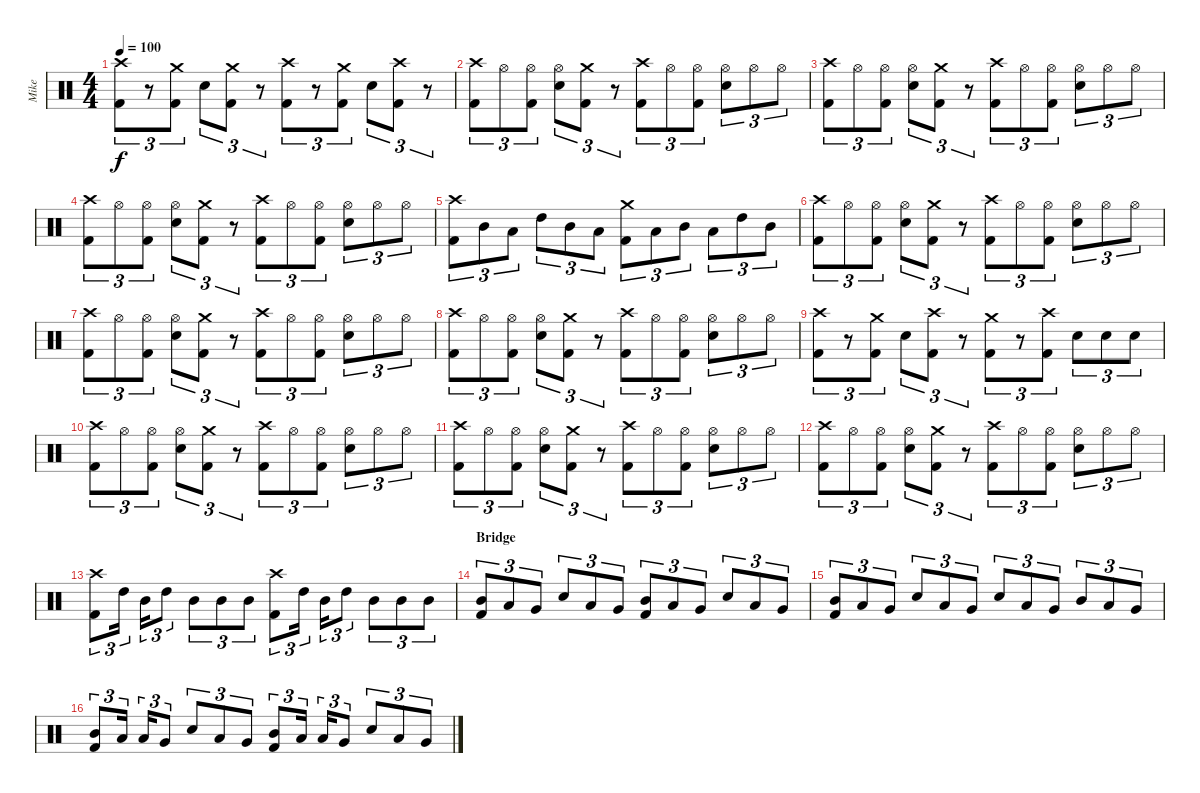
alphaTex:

\track ("Mike" "Mike") {instrument percussion}
\staff {score}
\articulation defaults
\ts (4 4)
\tempo 100
\clef neutral
\ks c
("Crash high (hit)" "Kick (hit) 2").8{tu (3 2) dy f} r.8{tu (3 2)} ("Crash medium (hit)" "Kick (hit) 2").8{tu (3 2)} "Electric Snare (hit)".8{tu (3 2)} ("Crash medium (hit)" "Kick (hit) 2").8{tu (3 2)} r.8{tu (3 2)} ("Crash high (hit)" "Kick (hit) 2").8{tu (3 2)} r.8{tu (3 2)} ("Crash medium (hit)" "Kick (hit) 2").8{tu (3 2)} "Electric Snare (hit)".8{tu (3 2)} ("Crash high (hit)" "Kick (hit) 2").8{tu (3 2)} r.8{tu (3 2)} |
("Crash high (hit)" "Kick (hit) 2").8{tu (3 2)} "Hi-Hat (open)".8{tu (3 2)} ("Hi-Hat (open)" "Kick (hit) 2").8{tu (3 2)} ("Hi-Hat (open)" "Electric Snare (hit)").8{tu (3 2)} ("Crash medium (hit)" "Kick (hit) 2").8{tu (3 2)} r.8{tu (3 2)} ("Crash high (hit)" "Kick (hit) 2").8{tu (3 2)} "Hi-Hat (open)".8{tu (3 2)} ("Hi-Hat (open)" "Kick (hit) 2").8{tu (3 2)} ("Hi-Hat (open)" "Electric Snare (hit)").8{tu (3 2)} "Hi-Hat (open)".8{tu (3 2)} "Hi-Hat (open)".8{tu (3 2)} |
("Crash high (hit)" "Kick (hit) 2").8{tu (3 2)} "Hi-Hat (open)".8{tu (3 2)} ("Hi-Hat (open)" "Kick (hit) 2").8{tu (3 2)} ("Hi-Hat (open)" "Electric Snare (hit)").8{tu (3 2)} ("Crash medium (hit)" "Kick (hit) 2").8{tu (3 2)} r.8{tu (3 2)} ("Crash high (hit)" "Kick (hit) 2").8{tu (3 2)} "Hi-Hat (open)".8{tu (3 2)} ("Hi-Hat (open)" "Kick (hit) 2").8{tu (3 2)} ("Hi-Hat (open)" "Electric Snare (hit)").8{tu (3 2)} "Hi-Hat (open)".8{tu (3 2)} "Hi-Hat (open)".8{tu (3 2)} |
("Crash high (hit)" "Kick (hit) 2").8{tu (3 2)} "Hi-Hat (open)".8{tu (3 2)} ("Hi-Hat (open)" "Kick (hit) 2").8{tu (3 2)} ("Hi-Hat (open)" "Electric Snare (hit)").8{tu (3 2)} ("Crash medium (hit)" "Kick (hit) 2").8{tu (3 2)} r.8{tu (3 2)} ("Crash high (hit)" "Kick (hit) 2").8{tu (3 2)} "Hi-Hat (open)".8{tu (3 2)} ("Hi-Hat (open)" "Kick (hit) 2").8{tu (3 2)} ("Hi-Hat (open)" "Electric Snare (hit)").8{tu (3 2)} "Hi-Hat (open)".8{tu (3 2)} "Hi-Hat (open)".8{tu (3 2)} |
("Crash high (hit)" "Kick (hit) 2").8{tu (3 2)} "Mid Tom (hit)".8{tu (3 2)} "Low Tom (hit)".8{tu (3 2)} "High Tom (hit)".8{tu (3 2)} "Mid Tom (hit)".8{tu (3 2)} "Low Tom (hit)".8{tu (3 2)} ("Crash medium (hit)" "Kick (hit) 2").8{tu (3 2)} "Low Tom (hit)".8{tu (3 2)} "Mid Tom (hit)".8{tu (3 2)} "Low Tom (hit)".8{tu (3 2)} "High Tom (hit)".8{tu (3 2)} "Mid Tom (hit)".8{tu (3 2)} |
("Crash high (hit)" "Kick (hit) 2").8{tu (3 2)} "Hi-Hat (open)".8{tu (3 2)} ("Hi-Hat (open)" "Kick (hit) 2").8{tu (3 2)} ("Hi-Hat (open)" "Electric Snare (hit)").8{tu (3 2)} ("Crash medium (hit)" "Kick (hit) 2").8{tu (3 2)} r.8{tu (3 2)} ("Crash high (hit)" "Kick (hit) 2").8{tu (3 2)} "Hi-Hat (open)".8{tu (3 2)} ("Hi-Hat (open)" "Kick (hit) 2").8{tu (3 2)} ("Hi-Hat (open)" "Electric Snare (hit)").8{tu (3 2)} "Hi-Hat (open)".8{tu (3 2)} "Hi-Hat (open)".8{tu (3 2)} |
("Crash high (hit)" "Kick (hit) 2").8{tu (3 2)} "Hi-Hat (open)".8{tu (3 2)} ("Hi-Hat (open)" "Kick (hit) 2").8{tu (3 2)} ("Hi-Hat (open)" "Electric Snare (hit)").8{tu (3 2)} ("Crash medium (hit)" "Kick (hit) 2").8{tu (3 2)} r.8{tu (3 2)} ("Crash high (hit)" "Kick (hit) 2").8{tu (3 2)} "Hi-Hat (open)".8{tu (3 2)} ("Hi-Hat (open)" "Kick (hit) 2").8{tu (3 2)} ("Hi-Hat (open)" "Electric Snare (hit)").8{tu (3 2)} "Hi-Hat (open)".8{tu (3 2)} "Hi-Hat (open)".8{tu (3 2)} |
("Crash high (hit)" "Kick (hit) 2").8{tu (3 2)} "Hi-Hat (open)".8{tu (3 2)} ("Hi-Hat (open)" "Kick (hit) 2").8{tu (3 2)} ("Hi-Hat (open)" "Electric Snare (hit)").8{tu (3 2)} ("Crash medium (hit)" "Kick (hit) 2").8{tu (3 2)} r.8{tu (3 2)} ("Crash high (hit)" "Kick (hit) 2").8{tu (3 2)} "Hi-Hat (open)".8{tu (3 2)} ("Hi-Hat (open)" "Kick (hit) 2").8{tu (3 2)} ("Hi-Hat (open)" "Electric Snare (hit)").8{tu (3 2)} "Hi-Hat (open)".8{tu (3 2)} "Hi-Hat (open)".8{tu (3 2)} |
("Crash high (hit)" "Kick (hit) 2").8{tu (3 2)} r.8{tu (3 2)} ("Crash medium (hit)" "Kick (hit) 2").8{tu (3 2)} "Electric Snare (hit)".8{tu (3 2)} ("Crash high (hit)" "Kick (hit) 2").8{tu (3 2)} r.8{tu (3 2)} ("Crash medium (hit)" "Kick (hit) 2").8{tu (3 2)} r.8{tu (3 2)} ("Crash high (hit)" "Kick (hit) 2").8{tu (3 2)} "Electric Snare (hit)".8{tu (3 2)} "Electric Snare (hit)".8{tu (3 2)} "Electric Snare (hit)".8{tu (3 2)} |
("Crash high (hit)" "Kick (hit) 2").8{tu (3 2)} "Hi-Hat (open)".8{tu (3 2)} ("Hi-Hat (open)" "Kick (hit) 2").8{tu (3 2)} ("Hi-Hat (open)" "Electric Snare (hit)").8{tu (3 2)} ("Crash medium (hit)" "Kick (hit) 2").8{tu (3 2)} r.8{tu (3 2)} ("Crash high (hit)" "Kick (hit) 2").8{tu (3 2)} "Hi-Hat (open)".8{tu (3 2)} ("Hi-Hat (open)" "Kick (hit) 2").8{tu (3 2)} ("Hi-Hat (open)" "Electric Snare (hit)").8{tu (3 2)} "Hi-Hat (open)".8{tu (3 2)} "Hi-Hat (open)".8{tu (3 2)} |
("Crash high (hit)" "Kick (hit) 2").8{tu (3 2)} "Hi-Hat (open)".8{tu (3 2)} ("Hi-Hat (open)" "Kick (hit) 2").8{tu (3 2)} ("Hi-Hat (open)" "Electric Snare (hit)").8{tu (3 2)} ("Crash medium (hit)" "Kick (hit) 2").8{tu (3 2)} r.8{tu (3 2)} ("Crash high (hit)" "Kick (hit) 2").8{tu (3 2)} "Hi-Hat (open)".8{tu (3 2)} ("Hi-Hat (open)" "Kick (hit) 2").8{tu (3 2)} ("Hi-Hat (open)" "Electric Snare (hit)").8{tu (3 2)} "Hi-Hat (open)".8{tu (3 2)} "Hi-Hat (open)".8{tu (3 2)} |
("Crash high (hit)" "Kick (hit) 2").8{tu (3 2)} "Hi-Hat (open)".8{tu (3 2)} ("Hi-Hat (open)" "Kick (hit) 2").8{tu (3 2)} ("Hi-Hat (open)" "Electric Snare (hit)").8{tu (3 2)} ("Crash medium (hit)" "Kick (hit) 2").8{tu (3 2)} r.8{tu (3 2)} ("Crash high (hit)" "Kick (hit) 2").8{tu (3 2)} "Hi-Hat (open)".8{tu (3 2)} ("Hi-Hat (open)" "Kick (hit) 2").8{tu (3 2)} ("Hi-Hat (open)" "Electric Snare (hit)").8{tu (3 2)} "Hi-Hat (open)".8{tu (3 2)} "Hi-Hat (open)".8{tu (3 2)} |
("Crash high (hit)" "Kick (hit) 2").8{tu (3 2)} "High Tom (hit)".16{tu (3 2)} "Mid Tom (hit)".16{tu (3 2)} "High Tom (hit)".8{tu (3 2)} "Mid Tom (hit)".8{tu (3 2)} "Mid Tom (hit)".8{tu (3 2)} "Mid Tom (hit)".8{tu (3 2)} ("Crash high (hit)" "Kick (hit) 2").8{tu (3 2)} "High Tom (hit)".16{tu (3 2)} "Mid Tom (hit)".16{tu (3 2)} "High Tom (hit)".8{tu (3 2)} "Mid Tom (hit)".8{tu (3 2)} "Mid Tom (hit)".8{tu (3 2)} "Mid Tom (hit)".8{tu (3 2)} |
\section ("" "Bridge")
("Mid Tom (hit)" "Kick (hit) 2").8{tu (3 2)} "Low Tom (hit)".8{tu (3 2)} "Very Low Tom (hit)".8{tu (3 2)} "Electric Snare (hit)".8{tu (3 2)} "Low Tom (hit)".8{tu (3 2)} "Very Low Tom (hit)".8{tu (3 2)} ("Mid Tom (hit)" "Kick (hit) 2").8{tu (3 2)} "Low Tom (hit)".8{tu (3 2)} "Very Low Tom (hit)".8{tu (3 2)} "Electric Snare (hit)".8{tu (3 2)} "Low Tom (hit)".8{tu (3 2)} "Very Low Tom (hit)".8{tu (3 2)} |
("Mid Tom (hit)" "Kick (hit) 2").8{tu (3 2)} "Low Tom (hit)".8{tu (3 2)} "Very Low Tom (hit)".8{tu (3 2)} "Electric Snare (hit)".8{tu (3 2)} "Low Tom (hit)".8{tu (3 2)} "Very Low Tom (hit)".8{tu (3 2)} "Electric Snare (hit)".8{tu (3 2)} "Low Tom (hit)".8{tu (3 2)} "Very Low Tom (hit)".8{tu (3 2)} "Mid Tom (hit)".8{tu (3 2)} "Low Tom (hit)".8{tu (3 2)} "Very Low Tom (hit)".8{tu (3 2)} |
("Mid Tom (hit)" "Kick (hit) 2").8{tu (3 2)} "Low Tom (hit)".16{tu (3 2)} "Low Tom (hit)".16{tu (3 2)} "Very Low Tom (hit)".8{tu (3 2)} "Electric Snare (hit)".8{tu (3 2)} "Low Tom (hit)".8{tu (3 2)} "Very Low Tom (hit)".8{tu (3 2)} ("Mid Tom (hit)" "Kick (hit) 2").8{tu (3 2)} "Low Tom (hit)".16{tu (3 2)} "Low Tom (hit)".16{tu (3 2)} "Very Low Tom (hit)".8{tu (3 2)} "Electric Snare (hit)".8{tu (3 2)} "Low Tom (hit)".8{tu (3 2)} "Very Low Tom (hit)".8{tu (3 2)}
